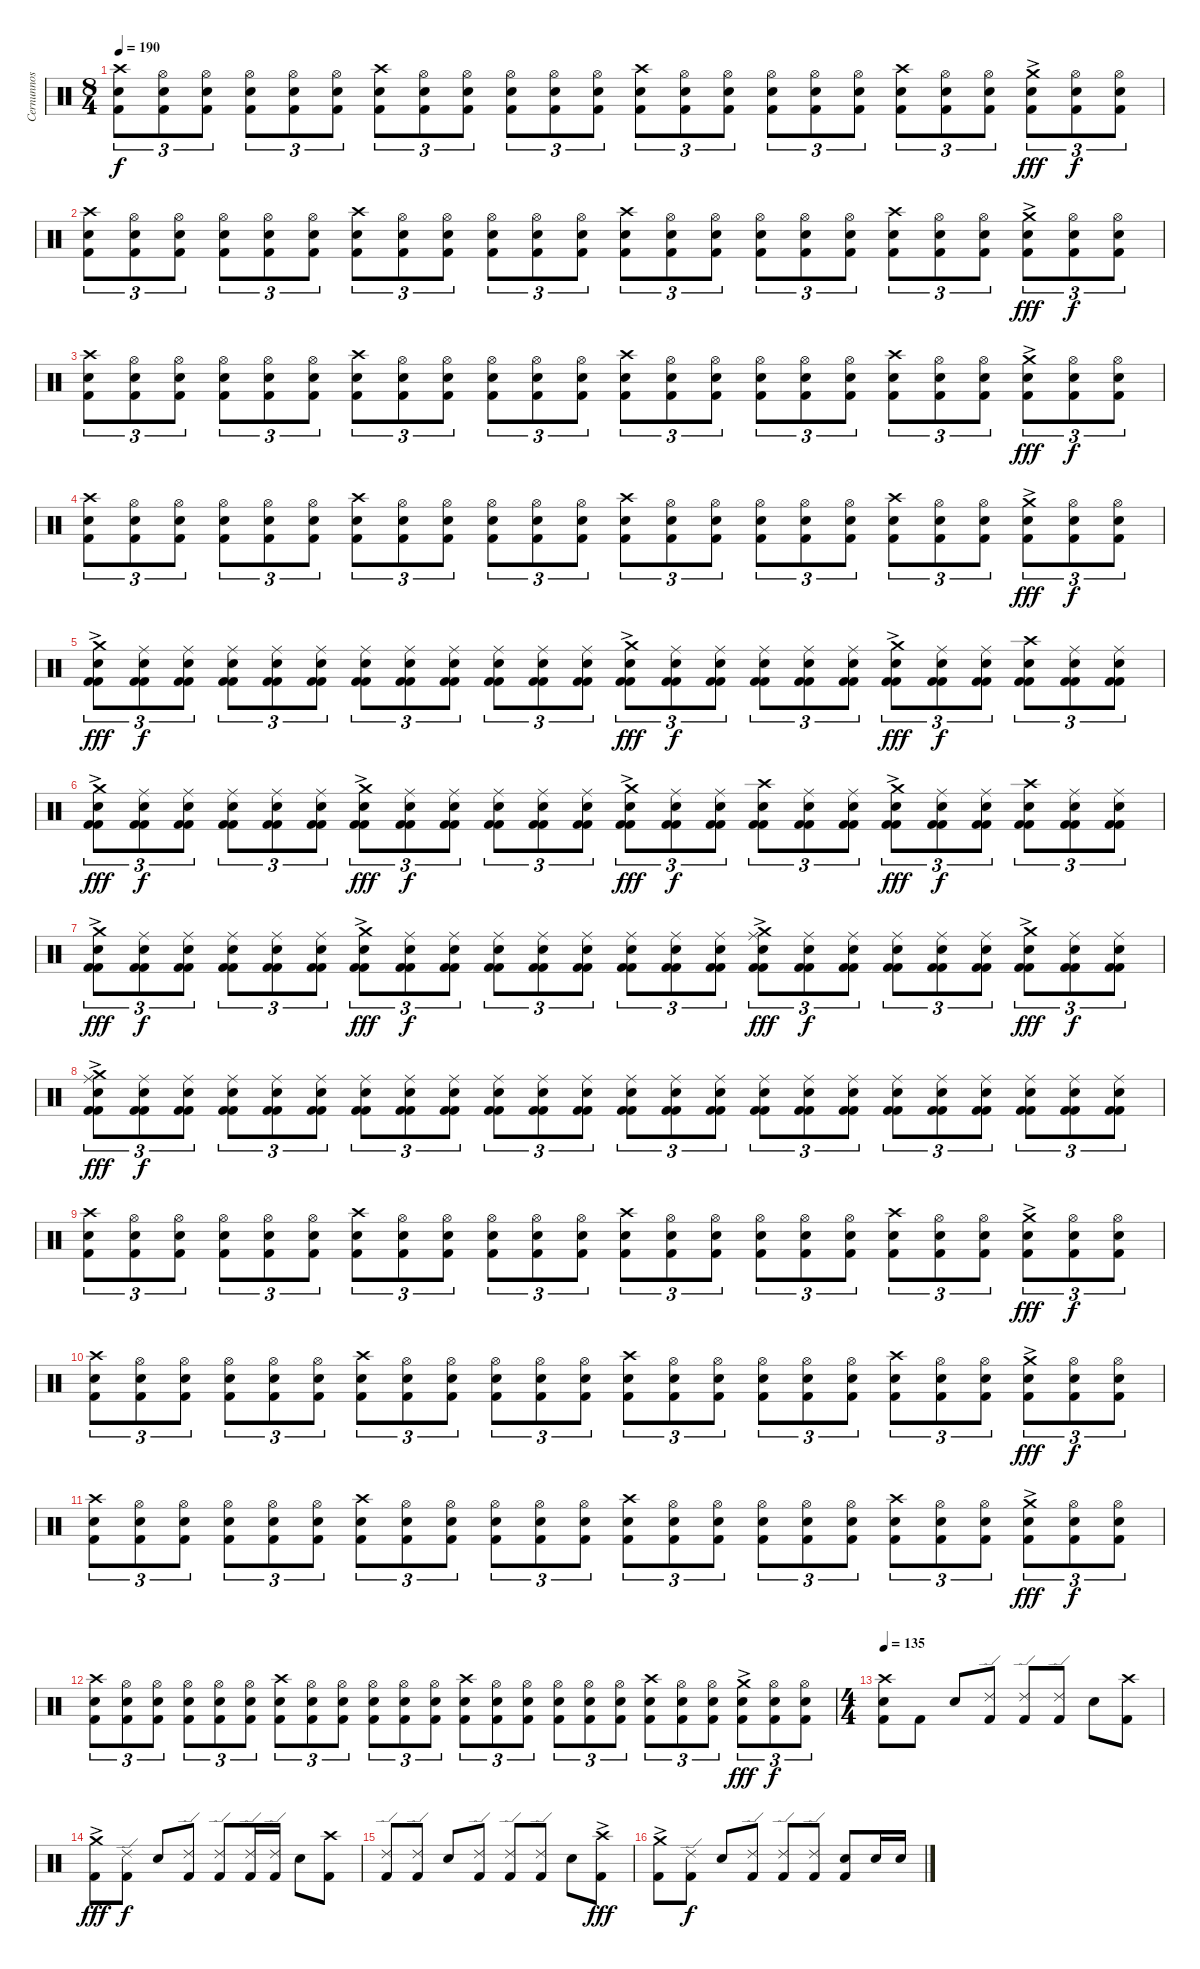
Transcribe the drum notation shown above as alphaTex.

\track ("Cernunnos (in memory)" "Cernunnos ") {instrument percussion}
\staff {score}
\articulation defaults
\ts (8 4)
\tempo 190
\clef neutral
\ks c
("Crash high (hit)" "Electric Snare (hit)" "Kick (hit) 2").8{tu (3 2) dy f} ("Hi-Hat (open)" "Electric Snare (hit)" "Kick (hit) 2").8{tu (3 2)} ("Hi-Hat (open)" "Electric Snare (hit)" "Kick (hit) 2").8{tu (3 2)} ("Hi-Hat (open)" "Electric Snare (hit)" "Kick (hit) 2").8{tu (3 2)} ("Hi-Hat (open)" "Electric Snare (hit)" "Kick (hit) 2").8{tu (3 2)} ("Hi-Hat (open)" "Electric Snare (hit)" "Kick (hit) 2").8{tu (3 2)} ("Crash high (hit)" "Electric Snare (hit)" "Kick (hit) 2").8{tu (3 2)} ("Hi-Hat (open)" "Electric Snare (hit)" "Kick (hit) 2").8{tu (3 2)} ("Hi-Hat (open)" "Electric Snare (hit)" "Kick (hit) 2").8{tu (3 2)} ("Hi-Hat (open)" "Electric Snare (hit)" "Kick (hit) 2").8{tu (3 2)} ("Hi-Hat (open)" "Electric Snare (hit)" "Kick (hit) 2").8{tu (3 2)} ("Hi-Hat (open)" "Electric Snare (hit)" "Kick (hit) 2").8{tu (3 2)} ("Crash high (hit)" "Electric Snare (hit)" "Kick (hit) 2").8{tu (3 2)} ("Hi-Hat (open)" "Electric Snare (hit)" "Kick (hit) 2").8{tu (3 2)} ("Hi-Hat (open)" "Electric Snare (hit)" "Kick (hit) 2").8{tu (3 2)} ("Hi-Hat (open)" "Electric Snare (hit)" "Kick (hit) 2").8{tu (3 2)} ("Hi-Hat (open)" "Electric Snare (hit)" "Kick (hit) 2").8{tu (3 2)} ("Hi-Hat (open)" "Electric Snare (hit)" "Kick (hit) 2").8{tu (3 2)} ("Crash high (hit)" "Electric Snare (hit)" "Kick (hit) 2").8{tu (3 2)} ("Hi-Hat (open)" "Electric Snare (hit)" "Kick (hit) 2").8{tu (3 2)} ("Hi-Hat (open)" "Electric Snare (hit)" "Kick (hit) 2").8{tu (3 2)} ("Crash medium (hit)"{ac} "Electric Snare (hit)" "Kick (hit) 2").8{tu (3 2) dy fff} ("Hi-Hat (open)" "Electric Snare (hit)" "Kick (hit) 2").8{tu (3 2) dy f} ("Hi-Hat (open)" "Electric Snare (hit)" "Kick (hit) 2").8{tu (3 2)} |
("Crash high (hit)" "Electric Snare (hit)" "Kick (hit) 2").8{tu (3 2)} ("Hi-Hat (open)" "Electric Snare (hit)" "Kick (hit) 2").8{tu (3 2)} ("Hi-Hat (open)" "Electric Snare (hit)" "Kick (hit) 2").8{tu (3 2)} ("Hi-Hat (open)" "Electric Snare (hit)" "Kick (hit) 2").8{tu (3 2)} ("Hi-Hat (open)" "Electric Snare (hit)" "Kick (hit) 2").8{tu (3 2)} ("Hi-Hat (open)" "Electric Snare (hit)" "Kick (hit) 2").8{tu (3 2)} ("Crash high (hit)" "Electric Snare (hit)" "Kick (hit) 2").8{tu (3 2)} ("Hi-Hat (open)" "Electric Snare (hit)" "Kick (hit) 2").8{tu (3 2)} ("Hi-Hat (open)" "Electric Snare (hit)" "Kick (hit) 2").8{tu (3 2)} ("Hi-Hat (open)" "Electric Snare (hit)" "Kick (hit) 2").8{tu (3 2)} ("Hi-Hat (open)" "Electric Snare (hit)" "Kick (hit) 2").8{tu (3 2)} ("Hi-Hat (open)" "Electric Snare (hit)" "Kick (hit) 2").8{tu (3 2)} ("Crash high (hit)" "Electric Snare (hit)" "Kick (hit) 2").8{tu (3 2)} ("Hi-Hat (open)" "Electric Snare (hit)" "Kick (hit) 2").8{tu (3 2)} ("Hi-Hat (open)" "Electric Snare (hit)" "Kick (hit) 2").8{tu (3 2)} ("Hi-Hat (open)" "Electric Snare (hit)" "Kick (hit) 2").8{tu (3 2)} ("Hi-Hat (open)" "Electric Snare (hit)" "Kick (hit) 2").8{tu (3 2)} ("Hi-Hat (open)" "Electric Snare (hit)" "Kick (hit) 2").8{tu (3 2)} ("Crash high (hit)" "Electric Snare (hit)" "Kick (hit) 2").8{tu (3 2)} ("Hi-Hat (open)" "Electric Snare (hit)" "Kick (hit) 2").8{tu (3 2)} ("Hi-Hat (open)" "Electric Snare (hit)" "Kick (hit) 2").8{tu (3 2)} ("Crash medium (hit)"{ac} "Electric Snare (hit)" "Kick (hit) 2").8{tu (3 2) dy fff} ("Hi-Hat (open)" "Electric Snare (hit)" "Kick (hit) 2").8{tu (3 2) dy f} ("Hi-Hat (open)" "Electric Snare (hit)" "Kick (hit) 2").8{tu (3 2)} |
("Crash high (hit)" "Electric Snare (hit)" "Kick (hit) 2").8{tu (3 2)} ("Hi-Hat (open)" "Electric Snare (hit)" "Kick (hit) 2").8{tu (3 2)} ("Hi-Hat (open)" "Electric Snare (hit)" "Kick (hit) 2").8{tu (3 2)} ("Hi-Hat (open)" "Electric Snare (hit)" "Kick (hit) 2").8{tu (3 2)} ("Hi-Hat (open)" "Electric Snare (hit)" "Kick (hit) 2").8{tu (3 2)} ("Hi-Hat (open)" "Electric Snare (hit)" "Kick (hit) 2").8{tu (3 2)} ("Crash high (hit)" "Electric Snare (hit)" "Kick (hit) 2").8{tu (3 2)} ("Hi-Hat (open)" "Electric Snare (hit)" "Kick (hit) 2").8{tu (3 2)} ("Hi-Hat (open)" "Electric Snare (hit)" "Kick (hit) 2").8{tu (3 2)} ("Hi-Hat (open)" "Electric Snare (hit)" "Kick (hit) 2").8{tu (3 2)} ("Hi-Hat (open)" "Electric Snare (hit)" "Kick (hit) 2").8{tu (3 2)} ("Hi-Hat (open)" "Electric Snare (hit)" "Kick (hit) 2").8{tu (3 2)} ("Crash high (hit)" "Electric Snare (hit)" "Kick (hit) 2").8{tu (3 2)} ("Hi-Hat (open)" "Electric Snare (hit)" "Kick (hit) 2").8{tu (3 2)} ("Hi-Hat (open)" "Electric Snare (hit)" "Kick (hit) 2").8{tu (3 2)} ("Hi-Hat (open)" "Electric Snare (hit)" "Kick (hit) 2").8{tu (3 2)} ("Hi-Hat (open)" "Electric Snare (hit)" "Kick (hit) 2").8{tu (3 2)} ("Hi-Hat (open)" "Electric Snare (hit)" "Kick (hit) 2").8{tu (3 2)} ("Crash high (hit)" "Electric Snare (hit)" "Kick (hit) 2").8{tu (3 2)} ("Hi-Hat (open)" "Electric Snare (hit)" "Kick (hit) 2").8{tu (3 2)} ("Hi-Hat (open)" "Electric Snare (hit)" "Kick (hit) 2").8{tu (3 2)} ("Crash medium (hit)"{ac} "Electric Snare (hit)" "Kick (hit) 2").8{tu (3 2) dy fff} ("Hi-Hat (open)" "Electric Snare (hit)" "Kick (hit) 2").8{tu (3 2) dy f} ("Hi-Hat (open)" "Electric Snare (hit)" "Kick (hit) 2").8{tu (3 2)} |
("Crash high (hit)" "Electric Snare (hit)" "Kick (hit) 2").8{tu (3 2)} ("Hi-Hat (open)" "Electric Snare (hit)" "Kick (hit) 2").8{tu (3 2)} ("Hi-Hat (open)" "Electric Snare (hit)" "Kick (hit) 2").8{tu (3 2)} ("Hi-Hat (open)" "Electric Snare (hit)" "Kick (hit) 2").8{tu (3 2)} ("Hi-Hat (open)" "Electric Snare (hit)" "Kick (hit) 2").8{tu (3 2)} ("Hi-Hat (open)" "Electric Snare (hit)" "Kick (hit) 2").8{tu (3 2)} ("Crash high (hit)" "Electric Snare (hit)" "Kick (hit) 2").8{tu (3 2)} ("Hi-Hat (open)" "Electric Snare (hit)" "Kick (hit) 2").8{tu (3 2)} ("Hi-Hat (open)" "Electric Snare (hit)" "Kick (hit) 2").8{tu (3 2)} ("Hi-Hat (open)" "Electric Snare (hit)" "Kick (hit) 2").8{tu (3 2)} ("Hi-Hat (open)" "Electric Snare (hit)" "Kick (hit) 2").8{tu (3 2)} ("Hi-Hat (open)" "Electric Snare (hit)" "Kick (hit) 2").8{tu (3 2)} ("Crash high (hit)" "Electric Snare (hit)" "Kick (hit) 2").8{tu (3 2)} ("Hi-Hat (open)" "Electric Snare (hit)" "Kick (hit) 2").8{tu (3 2)} ("Hi-Hat (open)" "Electric Snare (hit)" "Kick (hit) 2").8{tu (3 2)} ("Hi-Hat (open)" "Electric Snare (hit)" "Kick (hit) 2").8{tu (3 2)} ("Hi-Hat (open)" "Electric Snare (hit)" "Kick (hit) 2").8{tu (3 2)} ("Hi-Hat (open)" "Electric Snare (hit)" "Kick (hit) 2").8{tu (3 2)} ("Crash high (hit)" "Electric Snare (hit)" "Kick (hit) 2").8{tu (3 2)} ("Hi-Hat (open)" "Electric Snare (hit)" "Kick (hit) 2").8{tu (3 2)} ("Hi-Hat (open)" "Electric Snare (hit)" "Kick (hit) 2").8{tu (3 2)} ("Crash medium (hit)"{ac} "Electric Snare (hit)" "Kick (hit) 2").8{tu (3 2) dy fff} ("Hi-Hat (open)" "Electric Snare (hit)" "Kick (hit) 2").8{tu (3 2) dy f} ("Hi-Hat (open)" "Electric Snare (hit)" "Kick (hit) 2").8{tu (3 2)} |
("Crash medium (hit)"{ac} "Electric Snare (hit)" "Kick (hit) 2" "Kick (hit) 2").8{tu (3 2) dy fff} ("Ride (middle)" "Electric Snare (hit)" "Kick (hit) 2" "Kick (hit) 2").8{tu (3 2) dy f} ("Ride (middle)" "Electric Snare (hit)" "Kick (hit) 2" "Kick (hit) 2").8{tu (3 2)} ("Ride (middle)" "Electric Snare (hit)" "Kick (hit) 2" "Kick (hit) 2").8{tu (3 2)} ("Ride (middle)" "Electric Snare (hit)" "Kick (hit) 2" "Kick (hit) 2").8{tu (3 2)} ("Ride (middle)" "Electric Snare (hit)" "Kick (hit) 2" "Kick (hit) 2").8{tu (3 2)} ("Ride (middle)" "Electric Snare (hit)" "Kick (hit) 2" "Kick (hit) 2").8{tu (3 2)} ("Ride (middle)" "Electric Snare (hit)" "Kick (hit) 2" "Kick (hit) 2").8{tu (3 2)} ("Ride (middle)" "Electric Snare (hit)" "Kick (hit) 2" "Kick (hit) 2").8{tu (3 2)} ("Ride (middle)" "Electric Snare (hit)" "Kick (hit) 2" "Kick (hit) 2").8{tu (3 2)} ("Ride (middle)" "Electric Snare (hit)" "Kick (hit) 2" "Kick (hit) 2").8{tu (3 2)} ("Ride (middle)" "Electric Snare (hit)" "Kick (hit) 2" "Kick (hit) 2").8{tu (3 2)} ("Crash medium (hit)"{ac} "Electric Snare (hit)" "Kick (hit) 2" "Kick (hit) 2").8{tu (3 2) dy fff} ("Ride (middle)" "Electric Snare (hit)" "Kick (hit) 2" "Kick (hit) 2").8{tu (3 2) dy f} ("Ride (middle)" "Electric Snare (hit)" "Kick (hit) 2" "Kick (hit) 2").8{tu (3 2)} ("Ride (middle)" "Electric Snare (hit)" "Kick (hit) 2" "Kick (hit) 2").8{tu (3 2)} ("Ride (middle)" "Electric Snare (hit)" "Kick (hit) 2" "Kick (hit) 2").8{tu (3 2)} ("Ride (middle)" "Electric Snare (hit)" "Kick (hit) 2" "Kick (hit) 2").8{tu (3 2)} ("Crash medium (hit)"{ac} "Electric Snare (hit)" "Kick (hit) 2" "Kick (hit) 2").8{tu (3 2) dy fff} ("Ride (middle)" "Electric Snare (hit)" "Kick (hit) 2" "Kick (hit) 2").8{tu (3 2) dy f} ("Ride (middle)" "Electric Snare (hit)" "Kick (hit) 2" "Kick (hit) 2").8{tu (3 2)} ("Crash high (hit)" "Electric Snare (hit)" "Kick (hit) 2" "Kick (hit) 2").8{tu (3 2)} ("Ride (middle)" "Electric Snare (hit)" "Kick (hit) 2" "Kick (hit) 2").8{tu (3 2)} ("Ride (middle)" "Electric Snare (hit)" "Kick (hit) 2" "Kick (hit) 2").8{tu (3 2)} |
("Crash medium (hit)"{ac} "Electric Snare (hit)" "Kick (hit) 2" "Kick (hit) 2").8{tu (3 2) dy fff} ("Ride (middle)" "Electric Snare (hit)" "Kick (hit) 2" "Kick (hit) 2").8{tu (3 2) dy f} ("Ride (middle)" "Electric Snare (hit)" "Kick (hit) 2" "Kick (hit) 2").8{tu (3 2)} ("Ride (middle)" "Electric Snare (hit)" "Kick (hit) 2" "Kick (hit) 2").8{tu (3 2)} ("Ride (middle)" "Electric Snare (hit)" "Kick (hit) 2" "Kick (hit) 2").8{tu (3 2)} ("Ride (middle)" "Electric Snare (hit)" "Kick (hit) 2" "Kick (hit) 2").8{tu (3 2)} ("Crash medium (hit)"{ac} "Electric Snare (hit)" "Kick (hit) 2" "Kick (hit) 2").8{tu (3 2) dy fff} ("Ride (middle)" "Electric Snare (hit)" "Kick (hit) 2" "Kick (hit) 2").8{tu (3 2) dy f} ("Ride (middle)" "Electric Snare (hit)" "Kick (hit) 2" "Kick (hit) 2").8{tu (3 2)} ("Ride (middle)" "Electric Snare (hit)" "Kick (hit) 2" "Kick (hit) 2").8{tu (3 2)} ("Ride (middle)" "Electric Snare (hit)" "Kick (hit) 2" "Kick (hit) 2").8{tu (3 2)} ("Ride (middle)" "Electric Snare (hit)" "Kick (hit) 2" "Kick (hit) 2").8{tu (3 2)} ("Crash medium (hit)"{ac} "Electric Snare (hit)" "Kick (hit) 2" "Kick (hit) 2").8{tu (3 2) dy fff} ("Ride (middle)" "Electric Snare (hit)" "Kick (hit) 2" "Kick (hit) 2").8{tu (3 2) dy f} ("Ride (middle)" "Electric Snare (hit)" "Kick (hit) 2" "Kick (hit) 2").8{tu (3 2)} ("Crash high (hit)" "Electric Snare (hit)" "Kick (hit) 2" "Kick (hit) 2").8{tu (3 2)} ("Ride (middle)" "Electric Snare (hit)" "Kick (hit) 2" "Kick (hit) 2").8{tu (3 2)} ("Ride (middle)" "Electric Snare (hit)" "Kick (hit) 2" "Kick (hit) 2").8{tu (3 2)} ("Crash medium (hit)"{ac} "Electric Snare (hit)" "Kick (hit) 2" "Kick (hit) 2").8{tu (3 2) dy fff} ("Ride (middle)" "Electric Snare (hit)" "Kick (hit) 2" "Kick (hit) 2").8{tu (3 2) dy f} ("Ride (middle)" "Electric Snare (hit)" "Kick (hit) 2" "Kick (hit) 2").8{tu (3 2)} ("Crash high (hit)" "Electric Snare (hit)" "Kick (hit) 2" "Kick (hit) 2").8{tu (3 2)} ("Ride (middle)" "Electric Snare (hit)" "Kick (hit) 2" "Kick (hit) 2").8{tu (3 2)} ("Ride (middle)" "Electric Snare (hit)" "Kick (hit) 2" "Kick (hit) 2").8{tu (3 2)} |
("Crash medium (hit)"{ac} "Electric Snare (hit)" "Kick (hit) 2" "Kick (hit) 2").8{tu (3 2) dy fff} ("Ride (middle)" "Electric Snare (hit)" "Kick (hit) 2" "Kick (hit) 2").8{tu (3 2) dy f} ("Ride (middle)" "Electric Snare (hit)" "Kick (hit) 2" "Kick (hit) 2").8{tu (3 2)} ("Ride (middle)" "Electric Snare (hit)" "Kick (hit) 2" "Kick (hit) 2").8{tu (3 2)} ("Ride (middle)" "Electric Snare (hit)" "Kick (hit) 2" "Kick (hit) 2").8{tu (3 2)} ("Ride (middle)" "Electric Snare (hit)" "Kick (hit) 2" "Kick (hit) 2").8{tu (3 2)} ("Crash medium (hit)"{ac} "Electric Snare (hit)" "Kick (hit) 2" "Kick (hit) 2").8{tu (3 2) dy fff} ("Ride (middle)" "Electric Snare (hit)" "Kick (hit) 2" "Kick (hit) 2").8{tu (3 2) dy f} ("Ride (middle)" "Electric Snare (hit)" "Kick (hit) 2" "Kick (hit) 2").8{tu (3 2)} ("Ride (middle)" "Electric Snare (hit)" "Kick (hit) 2" "Kick (hit) 2").8{tu (3 2)} ("Ride (middle)" "Electric Snare (hit)" "Kick (hit) 2" "Kick (hit) 2").8{tu (3 2)} ("Ride (middle)" "Electric Snare (hit)" "Kick (hit) 2" "Kick (hit) 2").8{tu (3 2)} ("Ride (middle)" "Electric Snare (hit)" "Kick (hit) 2" "Kick (hit) 2").8{tu (3 2)} ("Ride (middle)" "Electric Snare (hit)" "Kick (hit) 2" "Kick (hit) 2").8{tu (3 2)} ("Ride (middle)" "Electric Snare (hit)" "Kick (hit) 2" "Kick (hit) 2").8{tu (3 2)} ("Crash medium (hit)"{ac} "Ride (middle)" "Electric Snare (hit)" "Kick (hit) 2" "Kick (hit) 2").8{tu (3 2) dy fff} ("Ride (middle)" "Electric Snare (hit)" "Kick (hit) 2" "Kick (hit) 2").8{tu (3 2) dy f} ("Ride (middle)" "Electric Snare (hit)" "Kick (hit) 2" "Kick (hit) 2").8{tu (3 2)} ("Ride (middle)" "Electric Snare (hit)" "Kick (hit) 2" "Kick (hit) 2").8{tu (3 2)} ("Ride (middle)" "Electric Snare (hit)" "Kick (hit) 2" "Kick (hit) 2").8{tu (3 2)} ("Ride (middle)" "Electric Snare (hit)" "Kick (hit) 2" "Kick (hit) 2").8{tu (3 2)} ("Crash medium (hit)"{ac} "Electric Snare (hit)" "Kick (hit) 2" "Kick (hit) 2").8{tu (3 2) dy fff} ("Ride (middle)" "Electric Snare (hit)" "Kick (hit) 2" "Kick (hit) 2").8{tu (3 2) dy f} ("Ride (middle)" "Electric Snare (hit)" "Kick (hit) 2" "Kick (hit) 2").8{tu (3 2)} |
("Crash medium (hit)"{ac} "Ride (middle)" "Electric Snare (hit)" "Kick (hit) 2" "Kick (hit) 2").8{tu (3 2) dy fff} ("Ride (middle)" "Electric Snare (hit)" "Kick (hit) 2" "Kick (hit) 2").8{tu (3 2) dy f} ("Ride (middle)" "Electric Snare (hit)" "Kick (hit) 2" "Kick (hit) 2").8{tu (3 2)} ("Ride (middle)" "Electric Snare (hit)" "Kick (hit) 2" "Kick (hit) 2").8{tu (3 2)} ("Ride (middle)" "Electric Snare (hit)" "Kick (hit) 2" "Kick (hit) 2").8{tu (3 2)} ("Ride (middle)" "Electric Snare (hit)" "Kick (hit) 2" "Kick (hit) 2").8{tu (3 2)} ("Ride (middle)" "Electric Snare (hit)" "Kick (hit) 2" "Kick (hit) 2").8{tu (3 2)} ("Ride (middle)" "Electric Snare (hit)" "Kick (hit) 2" "Kick (hit) 2").8{tu (3 2)} ("Ride (middle)" "Electric Snare (hit)" "Kick (hit) 2" "Kick (hit) 2").8{tu (3 2)} ("Ride (middle)" "Electric Snare (hit)" "Kick (hit) 2" "Kick (hit) 2").8{tu (3 2)} ("Ride (middle)" "Electric Snare (hit)" "Kick (hit) 2" "Kick (hit) 2").8{tu (3 2)} ("Ride (middle)" "Electric Snare (hit)" "Kick (hit) 2" "Kick (hit) 2").8{tu (3 2)} ("Ride (middle)" "Electric Snare (hit)" "Kick (hit) 2" "Kick (hit) 2").8{tu (3 2)} ("Ride (middle)" "Electric Snare (hit)" "Kick (hit) 2" "Kick (hit) 2").8{tu (3 2)} ("Ride (middle)" "Electric Snare (hit)" "Kick (hit) 2" "Kick (hit) 2").8{tu (3 2)} ("Ride (middle)" "Electric Snare (hit)" "Kick (hit) 2" "Kick (hit) 2").8{tu (3 2)} ("Ride (middle)" "Electric Snare (hit)" "Kick (hit) 2" "Kick (hit) 2").8{tu (3 2)} ("Ride (middle)" "Electric Snare (hit)" "Kick (hit) 2" "Kick (hit) 2").8{tu (3 2)} ("Ride (middle)" "Electric Snare (hit)" "Kick (hit) 2" "Kick (hit) 2").8{tu (3 2)} ("Ride (middle)" "Electric Snare (hit)" "Kick (hit) 2" "Kick (hit) 2").8{tu (3 2)} ("Ride (middle)" "Electric Snare (hit)" "Kick (hit) 2" "Kick (hit) 2").8{tu (3 2)} ("Ride (middle)" "Electric Snare (hit)" "Kick (hit) 2" "Kick (hit) 2").8{tu (3 2)} ("Ride (middle)" "Electric Snare (hit)" "Kick (hit) 2" "Kick (hit) 2").8{tu (3 2)} ("Ride (middle)" "Electric Snare (hit)" "Kick (hit) 2" "Kick (hit) 2").8{tu (3 2)} |
("Crash high (hit)" "Electric Snare (hit)" "Kick (hit) 2").8{tu (3 2)} ("Hi-Hat (open)" "Electric Snare (hit)" "Kick (hit) 2").8{tu (3 2)} ("Hi-Hat (open)" "Electric Snare (hit)" "Kick (hit) 2").8{tu (3 2)} ("Hi-Hat (open)" "Electric Snare (hit)" "Kick (hit) 2").8{tu (3 2)} ("Hi-Hat (open)" "Electric Snare (hit)" "Kick (hit) 2").8{tu (3 2)} ("Hi-Hat (open)" "Electric Snare (hit)" "Kick (hit) 2").8{tu (3 2)} ("Crash high (hit)" "Electric Snare (hit)" "Kick (hit) 2").8{tu (3 2)} ("Hi-Hat (open)" "Electric Snare (hit)" "Kick (hit) 2").8{tu (3 2)} ("Hi-Hat (open)" "Electric Snare (hit)" "Kick (hit) 2").8{tu (3 2)} ("Hi-Hat (open)" "Electric Snare (hit)" "Kick (hit) 2").8{tu (3 2)} ("Hi-Hat (open)" "Electric Snare (hit)" "Kick (hit) 2").8{tu (3 2)} ("Hi-Hat (open)" "Electric Snare (hit)" "Kick (hit) 2").8{tu (3 2)} ("Crash high (hit)" "Electric Snare (hit)" "Kick (hit) 2").8{tu (3 2)} ("Hi-Hat (open)" "Electric Snare (hit)" "Kick (hit) 2").8{tu (3 2)} ("Hi-Hat (open)" "Electric Snare (hit)" "Kick (hit) 2").8{tu (3 2)} ("Hi-Hat (open)" "Electric Snare (hit)" "Kick (hit) 2").8{tu (3 2)} ("Hi-Hat (open)" "Electric Snare (hit)" "Kick (hit) 2").8{tu (3 2)} ("Hi-Hat (open)" "Electric Snare (hit)" "Kick (hit) 2").8{tu (3 2)} ("Crash high (hit)" "Electric Snare (hit)" "Kick (hit) 2").8{tu (3 2)} ("Hi-Hat (open)" "Electric Snare (hit)" "Kick (hit) 2").8{tu (3 2)} ("Hi-Hat (open)" "Electric Snare (hit)" "Kick (hit) 2").8{tu (3 2)} ("Crash medium (hit)"{ac} "Electric Snare (hit)" "Kick (hit) 2").8{tu (3 2) dy fff} ("Hi-Hat (open)" "Electric Snare (hit)" "Kick (hit) 2").8{tu (3 2) dy f} ("Hi-Hat (open)" "Electric Snare (hit)" "Kick (hit) 2").8{tu (3 2)} |
("Crash high (hit)" "Electric Snare (hit)" "Kick (hit) 2").8{tu (3 2)} ("Hi-Hat (open)" "Electric Snare (hit)" "Kick (hit) 2").8{tu (3 2)} ("Hi-Hat (open)" "Electric Snare (hit)" "Kick (hit) 2").8{tu (3 2)} ("Hi-Hat (open)" "Electric Snare (hit)" "Kick (hit) 2").8{tu (3 2)} ("Hi-Hat (open)" "Electric Snare (hit)" "Kick (hit) 2").8{tu (3 2)} ("Hi-Hat (open)" "Electric Snare (hit)" "Kick (hit) 2").8{tu (3 2)} ("Crash high (hit)" "Electric Snare (hit)" "Kick (hit) 2").8{tu (3 2)} ("Hi-Hat (open)" "Electric Snare (hit)" "Kick (hit) 2").8{tu (3 2)} ("Hi-Hat (open)" "Electric Snare (hit)" "Kick (hit) 2").8{tu (3 2)} ("Hi-Hat (open)" "Electric Snare (hit)" "Kick (hit) 2").8{tu (3 2)} ("Hi-Hat (open)" "Electric Snare (hit)" "Kick (hit) 2").8{tu (3 2)} ("Hi-Hat (open)" "Electric Snare (hit)" "Kick (hit) 2").8{tu (3 2)} ("Crash high (hit)" "Electric Snare (hit)" "Kick (hit) 2").8{tu (3 2)} ("Hi-Hat (open)" "Electric Snare (hit)" "Kick (hit) 2").8{tu (3 2)} ("Hi-Hat (open)" "Electric Snare (hit)" "Kick (hit) 2").8{tu (3 2)} ("Hi-Hat (open)" "Electric Snare (hit)" "Kick (hit) 2").8{tu (3 2)} ("Hi-Hat (open)" "Electric Snare (hit)" "Kick (hit) 2").8{tu (3 2)} ("Hi-Hat (open)" "Electric Snare (hit)" "Kick (hit) 2").8{tu (3 2)} ("Crash high (hit)" "Electric Snare (hit)" "Kick (hit) 2").8{tu (3 2)} ("Hi-Hat (open)" "Electric Snare (hit)" "Kick (hit) 2").8{tu (3 2)} ("Hi-Hat (open)" "Electric Snare (hit)" "Kick (hit) 2").8{tu (3 2)} ("Crash medium (hit)"{ac} "Electric Snare (hit)" "Kick (hit) 2").8{tu (3 2) dy fff} ("Hi-Hat (open)" "Electric Snare (hit)" "Kick (hit) 2").8{tu (3 2) dy f} ("Hi-Hat (open)" "Electric Snare (hit)" "Kick (hit) 2").8{tu (3 2)} |
("Crash high (hit)" "Electric Snare (hit)" "Kick (hit) 2").8{tu (3 2)} ("Hi-Hat (open)" "Electric Snare (hit)" "Kick (hit) 2").8{tu (3 2)} ("Hi-Hat (open)" "Electric Snare (hit)" "Kick (hit) 2").8{tu (3 2)} ("Hi-Hat (open)" "Electric Snare (hit)" "Kick (hit) 2").8{tu (3 2)} ("Hi-Hat (open)" "Electric Snare (hit)" "Kick (hit) 2").8{tu (3 2)} ("Hi-Hat (open)" "Electric Snare (hit)" "Kick (hit) 2").8{tu (3 2)} ("Crash high (hit)" "Electric Snare (hit)" "Kick (hit) 2").8{tu (3 2)} ("Hi-Hat (open)" "Electric Snare (hit)" "Kick (hit) 2").8{tu (3 2)} ("Hi-Hat (open)" "Electric Snare (hit)" "Kick (hit) 2").8{tu (3 2)} ("Hi-Hat (open)" "Electric Snare (hit)" "Kick (hit) 2").8{tu (3 2)} ("Hi-Hat (open)" "Electric Snare (hit)" "Kick (hit) 2").8{tu (3 2)} ("Hi-Hat (open)" "Electric Snare (hit)" "Kick (hit) 2").8{tu (3 2)} ("Crash high (hit)" "Electric Snare (hit)" "Kick (hit) 2").8{tu (3 2)} ("Hi-Hat (open)" "Electric Snare (hit)" "Kick (hit) 2").8{tu (3 2)} ("Hi-Hat (open)" "Electric Snare (hit)" "Kick (hit) 2").8{tu (3 2)} ("Hi-Hat (open)" "Electric Snare (hit)" "Kick (hit) 2").8{tu (3 2)} ("Hi-Hat (open)" "Electric Snare (hit)" "Kick (hit) 2").8{tu (3 2)} ("Hi-Hat (open)" "Electric Snare (hit)" "Kick (hit) 2").8{tu (3 2)} ("Crash high (hit)" "Electric Snare (hit)" "Kick (hit) 2").8{tu (3 2)} ("Hi-Hat (open)" "Electric Snare (hit)" "Kick (hit) 2").8{tu (3 2)} ("Hi-Hat (open)" "Electric Snare (hit)" "Kick (hit) 2").8{tu (3 2)} ("Crash medium (hit)"{ac} "Electric Snare (hit)" "Kick (hit) 2").8{tu (3 2) dy fff} ("Hi-Hat (open)" "Electric Snare (hit)" "Kick (hit) 2").8{tu (3 2) dy f} ("Hi-Hat (open)" "Electric Snare (hit)" "Kick (hit) 2").8{tu (3 2)} |
("Crash high (hit)" "Electric Snare (hit)" "Kick (hit) 2").8{tu (3 2)} ("Hi-Hat (open)" "Electric Snare (hit)" "Kick (hit) 2").8{tu (3 2)} ("Hi-Hat (open)" "Electric Snare (hit)" "Kick (hit) 2").8{tu (3 2)} ("Hi-Hat (open)" "Electric Snare (hit)" "Kick (hit) 2").8{tu (3 2)} ("Hi-Hat (open)" "Electric Snare (hit)" "Kick (hit) 2").8{tu (3 2)} ("Hi-Hat (open)" "Electric Snare (hit)" "Kick (hit) 2").8{tu (3 2)} ("Crash high (hit)" "Electric Snare (hit)" "Kick (hit) 2").8{tu (3 2)} ("Hi-Hat (open)" "Electric Snare (hit)" "Kick (hit) 2").8{tu (3 2)} ("Hi-Hat (open)" "Electric Snare (hit)" "Kick (hit) 2").8{tu (3 2)} ("Hi-Hat (open)" "Electric Snare (hit)" "Kick (hit) 2").8{tu (3 2)} ("Hi-Hat (open)" "Electric Snare (hit)" "Kick (hit) 2").8{tu (3 2)} ("Hi-Hat (open)" "Electric Snare (hit)" "Kick (hit) 2").8{tu (3 2)} ("Crash high (hit)" "Electric Snare (hit)" "Kick (hit) 2").8{tu (3 2)} ("Hi-Hat (open)" "Electric Snare (hit)" "Kick (hit) 2").8{tu (3 2)} ("Hi-Hat (open)" "Electric Snare (hit)" "Kick (hit) 2").8{tu (3 2)} ("Hi-Hat (open)" "Electric Snare (hit)" "Kick (hit) 2").8{tu (3 2)} ("Hi-Hat (open)" "Electric Snare (hit)" "Kick (hit) 2").8{tu (3 2)} ("Hi-Hat (open)" "Electric Snare (hit)" "Kick (hit) 2").8{tu (3 2)} ("Crash high (hit)" "Electric Snare (hit)" "Kick (hit) 2").8{tu (3 2)} ("Hi-Hat (open)" "Electric Snare (hit)" "Kick (hit) 2").8{tu (3 2)} ("Hi-Hat (open)" "Electric Snare (hit)" "Kick (hit) 2").8{tu (3 2)} ("Crash medium (hit)"{ac} "Electric Snare (hit)" "Kick (hit) 2").8{tu (3 2) dy fff} ("Hi-Hat (open)" "Electric Snare (hit)" "Kick (hit) 2").8{tu (3 2) dy f} ("Hi-Hat (open)" "Electric Snare (hit)" "Kick (hit) 2").8{tu (3 2)} |
\ts (4 4)
\tempo 135
("Crash high (hit)" "Electric Snare (hit)" "Kick (hit) 2").8 "Kick (hit) 2".8 "Electric Snare (hit)".8 ("Ride (edge) 2" "Kick (hit) 2").8 ("Ride (edge) 2" "Kick (hit) 2").8 ("Ride (edge) 2" "Kick (hit) 2").8 "Electric Snare (hit)".8 ("Crash high (hit)" "Kick (hit) 2").8 |
("Crash medium (hit)"{ac} "Kick (hit) 2").8{dy fff} ("Ride (edge) 2" "Kick (hit) 2").8{dy f} "Electric Snare (hit)".8 ("Ride (edge) 2" "Kick (hit) 2").8 ("Ride (edge) 2" "Kick (hit) 2").8 ("Ride (edge) 2" "Kick (hit) 2").16 ("Ride (edge) 2" "Kick (hit) 2").16 "Electric Snare (hit)".8 ("Crash high (hit)" "Kick (hit) 2").8 |
("Ride (edge) 2" "Kick (hit) 2").8 ("Ride (edge) 2" "Kick (hit) 2").8 "Electric Snare (hit)".8 ("Ride (edge) 2" "Kick (hit) 2").8 ("Ride (edge) 2" "Kick (hit) 2").8 ("Ride (edge) 2" "Kick (hit) 2").8 "Electric Snare (hit)".8 ("Crash high (hit)"{ac} "Kick (hit) 2").8{dy fff} |
("Crash medium (hit)"{ac} "Kick (hit) 2").8 ("Ride (edge) 2" "Kick (hit) 2").8{dy f} "Electric Snare (hit)".8 ("Ride (edge) 2" "Kick (hit) 2").8 ("Ride (edge) 2" "Kick (hit) 2").8 ("Ride (edge) 2" "Kick (hit) 2").8 ("Electric Snare (hit)" "Kick (hit) 2").8 "Electric Snare (hit)".16 "Electric Snare (hit)".16
